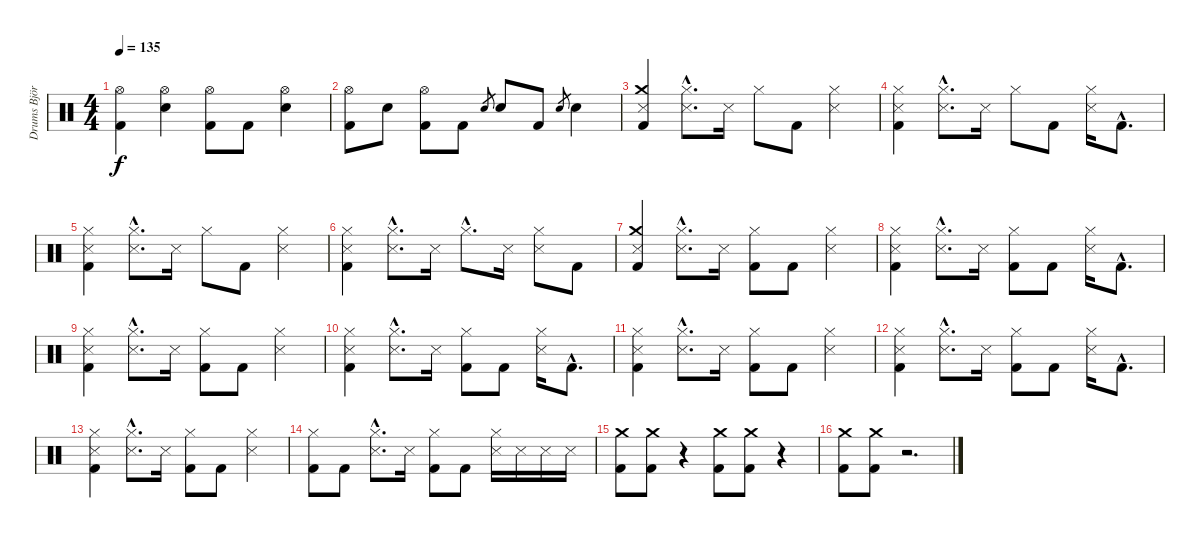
\track ("Drums Björn Fryklund" "Drums Björ") {instrument percussion}
\staff {score}
\articulation defaults
\ts (4 4)
\tempo 135
\clef neutral
\ks c
("Hi-Hat (open)" "Kick (hit) 2").4{dy f} ("Hi-Hat (open)" "Electric Snare (hit)").4 ("Hi-Hat (open)" "Kick (hit) 2").8 "Kick (hit) 2".8 ("Hi-Hat (open)" "Electric Snare (hit)").4 |
("Hi-Hat (open)" "Kick (hit) 2").8 "Electric Snare (hit)".8 ("Hi-Hat (open)" "Kick (hit) 2").8 "Kick (hit) 2".8 "Electric Snare (hit)".8{gr} "Electric Snare (hit)".8 "Kick (hit) 2".8 "Electric Snare (hit)".8{gr} "Electric Snare (hit)".4 |
("Crash medium (hit)" "Snare (side stick) 3" "Kick (hit) 2").4 ("Hi-Hat (closed)"{hac} "Snare (side stick) 3"{hac}).8{d} "Snare (side stick) 3".16 "Hi-Hat (closed)".8 "Kick (hit) 2".8 ("Hi-Hat (closed)" "Snare (side stick) 3").4 |
("Hi-Hat (closed)" "Snare (side stick) 3" "Kick (hit) 2").4 ("Hi-Hat (closed)"{hac} "Snare (side stick) 3"{hac}).8{d} "Snare (side stick) 3".16 "Hi-Hat (closed)".8 "Kick (hit) 2".8 ("Hi-Hat (closed)" "Snare (side stick) 3").16 "Kick (hit) 2"{hac}.8{d} |
("Hi-Hat (closed)" "Snare (side stick) 3" "Kick (hit) 2").4 ("Hi-Hat (closed)"{hac} "Snare (side stick) 3"{hac}).8{d} "Snare (side stick) 3".16 "Hi-Hat (closed)".8 "Kick (hit) 2".8 ("Hi-Hat (closed)" "Snare (side stick) 3").4 |
("Hi-Hat (closed)" "Snare (side stick) 3" "Kick (hit) 2").4 ("Hi-Hat (closed)"{hac} "Snare (side stick) 3"{hac}).8{d} "Snare (side stick) 3".16 "Hi-Hat (closed)"{hac}.8{d} "Snare (side stick) 3".16 ("Hi-Hat (closed)" "Snare (side stick) 3").8 "Kick (hit) 2".8 |
("Crash medium (hit)" "Snare (side stick) 3" "Kick (hit) 2").4 ("Hi-Hat (closed)"{hac} "Snare (side stick) 3"{hac}).8{d} "Snare (side stick) 3".16 ("Hi-Hat (closed)" "Kick (hit) 2").8 "Kick (hit) 2".8 ("Hi-Hat (closed)" "Snare (side stick) 3").4 |
("Hi-Hat (closed)" "Snare (side stick) 3" "Kick (hit) 2").4 ("Hi-Hat (closed)"{hac} "Snare (side stick) 3"{hac}).8{d} "Snare (side stick) 3".16 ("Hi-Hat (closed)" "Kick (hit) 2").8 "Kick (hit) 2".8 ("Hi-Hat (closed)" "Snare (side stick) 3").16 "Kick (hit) 2"{hac}.8{d} |
("Hi-Hat (closed)" "Snare (side stick) 3" "Kick (hit) 2").4 ("Hi-Hat (closed)"{hac} "Snare (side stick) 3"{hac}).8{d} "Snare (side stick) 3".16 ("Hi-Hat (closed)" "Kick (hit) 2").8 "Kick (hit) 2".8 ("Hi-Hat (closed)" "Snare (side stick) 3").4 |
("Hi-Hat (closed)" "Snare (side stick) 3" "Kick (hit) 2").4 ("Hi-Hat (closed)"{hac} "Snare (side stick) 3"{hac}).8{d} "Snare (side stick) 3".16 ("Hi-Hat (closed)" "Kick (hit) 2").8 "Kick (hit) 2".8 ("Hi-Hat (closed)" "Snare (side stick) 3").16 "Kick (hit) 2"{hac}.8{d} |
("Hi-Hat (closed)" "Snare (side stick) 3" "Kick (hit) 2").4 ("Hi-Hat (closed)"{hac} "Snare (side stick) 3"{hac}).8{d} "Snare (side stick) 3".16 ("Hi-Hat (closed)" "Kick (hit) 2").8 "Kick (hit) 2".8 ("Hi-Hat (closed)" "Snare (side stick) 3").4 |
("Hi-Hat (closed)" "Snare (side stick) 3" "Kick (hit) 2").4 ("Hi-Hat (closed)"{hac} "Snare (side stick) 3"{hac}).8{d} "Snare (side stick) 3".16 ("Hi-Hat (closed)" "Kick (hit) 2").8 "Kick (hit) 2".8 ("Hi-Hat (closed)" "Snare (side stick) 3").16 "Kick (hit) 2"{hac}.8{d} |
("Hi-Hat (closed)" "Snare (side stick) 3" "Kick (hit) 2").4 ("Hi-Hat (closed)"{hac} "Snare (side stick) 3"{hac}).8{d} "Snare (side stick) 3".16 ("Hi-Hat (closed)" "Kick (hit) 2").8 "Kick (hit) 2".8 ("Hi-Hat (closed)" "Snare (side stick) 3").4 |
("Hi-Hat (closed)" "Kick (hit) 2").8 "Kick (hit) 2".8 ("Hi-Hat (closed)"{hac} "Snare (side stick) 3"{hac}).8{d} "Snare (side stick) 3".16 ("Hi-Hat (closed)" "Kick (hit) 2").8 "Kick (hit) 2".8 ("Hi-Hat (closed)" "Snare (side stick) 3").16 "Snare (side stick) 3".16 "Snare (side stick) 3".16 "Snare (side stick) 3".16 |
("Crash medium (hit)" "Kick (hit) 2").8 ("Crash medium (hit)" "Kick (hit) 2").8 r.4 ("Crash medium (hit)" "Kick (hit) 2").8 ("Crash medium (hit)" "Kick (hit) 2").8 r.4 |
("Crash medium (hit)" "Kick (hit) 2").8 ("Crash medium (hit)" "Kick (hit) 2").8 r.2{d}
